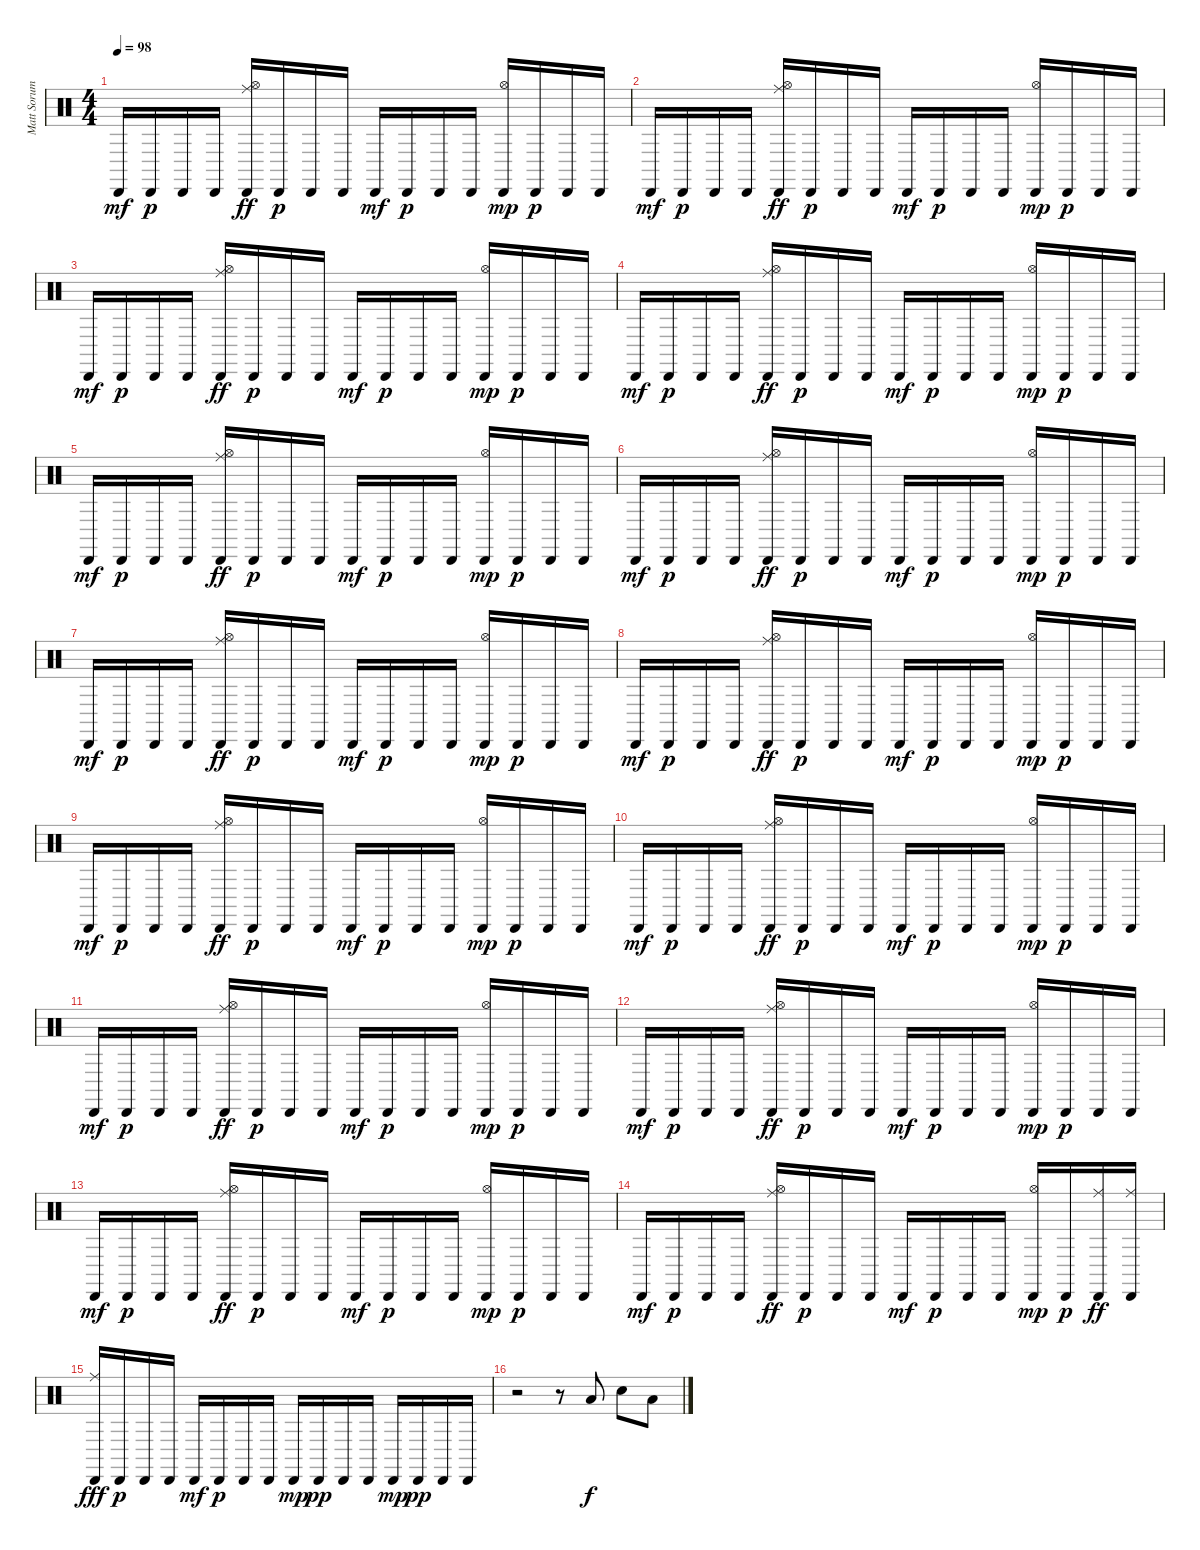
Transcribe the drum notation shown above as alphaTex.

\track ("Matt Sorum" "Matt Sorum") {instrument percussion}
\staff {score}
\articulation defaults
\ts (4 4)
\tempo 98
\clef neutral
\ks c "Cabasa (hit)".16{dy mf volume 6} "Cabasa (hit)".16{dy p} "Cabasa (hit)".16 "Cabasa (hit)".16
("Cabasa (hit)" "Hi-Hat (open)" "Ride (middle)").16{dy ff} "Cabasa (hit)".16{dy p} "Cabasa (hit)".16 "Cabasa (hit)".16 "Cabasa (hit)".16{dy mf} "Cabasa (hit)".16{dy p} "Cabasa (hit)".16 "Cabasa (hit)".16 ("Cabasa (hit)" "Hi-Hat (open)").16{dy mp} "Cabasa (hit)".16{dy p} "Cabasa (hit)".16 "Cabasa (hit)".16 |
"Cabasa (hit)".16{dy mf} "Cabasa (hit)".16{dy p} "Cabasa (hit)".16 "Cabasa (hit)".16 ("Cabasa (hit)" "Hi-Hat (open)" "Ride (middle)").16{dy ff} "Cabasa (hit)".16{dy p} "Cabasa (hit)".16 "Cabasa (hit)".16 "Cabasa (hit)".16{dy mf} "Cabasa (hit)".16{dy p} "Cabasa (hit)".16 "Cabasa (hit)".16 ("Cabasa (hit)" "Hi-Hat (open)").16{dy mp} "Cabasa (hit)".16{dy p} "Cabasa (hit)".16 "Cabasa (hit)".16 |
"Cabasa (hit)".16{dy mf} "Cabasa (hit)".16{dy p} "Cabasa (hit)".16 "Cabasa (hit)".16 ("Cabasa (hit)" "Hi-Hat (open)" "Ride (middle)").16{dy ff} "Cabasa (hit)".16{dy p} "Cabasa (hit)".16 "Cabasa (hit)".16 "Cabasa (hit)".16{dy mf} "Cabasa (hit)".16{dy p} "Cabasa (hit)".16 "Cabasa (hit)".16 ("Cabasa (hit)" "Hi-Hat (open)").16{dy mp} "Cabasa (hit)".16{dy p} "Cabasa (hit)".16 "Cabasa (hit)".16 |
"Cabasa (hit)".16{dy mf} "Cabasa (hit)".16{dy p} "Cabasa (hit)".16 "Cabasa (hit)".16 ("Cabasa (hit)" "Hi-Hat (open)" "Ride (middle)").16{dy ff} "Cabasa (hit)".16{dy p} "Cabasa (hit)".16 "Cabasa (hit)".16 "Cabasa (hit)".16{dy mf} "Cabasa (hit)".16{dy p} "Cabasa (hit)".16 "Cabasa (hit)".16 ("Cabasa (hit)" "Hi-Hat (open)").16{dy mp} "Cabasa (hit)".16{dy p} "Cabasa (hit)".16 "Cabasa (hit)".16 |
"Cabasa (hit)".16{dy mf volume 6} "Cabasa (hit)".16{dy p} "Cabasa (hit)".16 "Cabasa (hit)".16 ("Cabasa (hit)" "Hi-Hat (open)" "Ride (middle)").16{dy ff} "Cabasa (hit)".16{dy p} "Cabasa (hit)".16 "Cabasa (hit)".16 "Cabasa (hit)".16{dy mf} "Cabasa (hit)".16{dy p} "Cabasa (hit)".16 "Cabasa (hit)".16 ("Cabasa (hit)" "Hi-Hat (open)").16{dy mp} "Cabasa (hit)".16{dy p} "Cabasa (hit)".16 "Cabasa (hit)".16 |
"Cabasa (hit)".16{dy mf} "Cabasa (hit)".16{dy p} "Cabasa (hit)".16 "Cabasa (hit)".16 ("Cabasa (hit)" "Hi-Hat (open)" "Ride (middle)").16{dy ff} "Cabasa (hit)".16{dy p} "Cabasa (hit)".16 "Cabasa (hit)".16 "Cabasa (hit)".16{dy mf} "Cabasa (hit)".16{dy p} "Cabasa (hit)".16 "Cabasa (hit)".16 ("Cabasa (hit)" "Hi-Hat (open)").16{dy mp} "Cabasa (hit)".16{dy p} "Cabasa (hit)".16 "Cabasa (hit)".16 |
"Cabasa (hit)".16{dy mf} "Cabasa (hit)".16{dy p} "Cabasa (hit)".16 "Cabasa (hit)".16 ("Cabasa (hit)" "Hi-Hat (open)" "Ride (middle)").16{dy ff} "Cabasa (hit)".16{dy p} "Cabasa (hit)".16 "Cabasa (hit)".16 "Cabasa (hit)".16{dy mf} "Cabasa (hit)".16{dy p} "Cabasa (hit)".16 "Cabasa (hit)".16 ("Cabasa (hit)" "Hi-Hat (open)").16{dy mp} "Cabasa (hit)".16{dy p} "Cabasa (hit)".16 "Cabasa (hit)".16 |
"Cabasa (hit)".16{dy mf} "Cabasa (hit)".16{dy p} "Cabasa (hit)".16 "Cabasa (hit)".16 ("Cabasa (hit)" "Hi-Hat (open)" "Ride (middle)").16{dy ff} "Cabasa (hit)".16{dy p} "Cabasa (hit)".16 "Cabasa (hit)".16 "Cabasa (hit)".16{dy mf} "Cabasa (hit)".16{dy p} "Cabasa (hit)".16 "Cabasa (hit)".16 ("Cabasa (hit)" "Hi-Hat (open)").16{dy mp} "Cabasa (hit)".16{dy p} "Cabasa (hit)".16 "Cabasa (hit)".16 |
"Cabasa (hit)".16{dy mf} "Cabasa (hit)".16{dy p} "Cabasa (hit)".16 "Cabasa (hit)".16 ("Cabasa (hit)" "Hi-Hat (open)" "Ride (middle)").16{dy ff} "Cabasa (hit)".16{dy p} "Cabasa (hit)".16 "Cabasa (hit)".16 "Cabasa (hit)".16{dy mf} "Cabasa (hit)".16{dy p} "Cabasa (hit)".16 "Cabasa (hit)".16 ("Cabasa (hit)" "Hi-Hat (open)").16{dy mp} "Cabasa (hit)".16{dy p} "Cabasa (hit)".16 "Cabasa (hit)".16 |
"Cabasa (hit)".16{dy mf} "Cabasa (hit)".16{dy p} "Cabasa (hit)".16 "Cabasa (hit)".16 ("Cabasa (hit)" "Hi-Hat (open)" "Ride (middle)").16{dy ff} "Cabasa (hit)".16{dy p} "Cabasa (hit)".16 "Cabasa (hit)".16 "Cabasa (hit)".16{dy mf} "Cabasa (hit)".16{dy p} "Cabasa (hit)".16 "Cabasa (hit)".16 ("Cabasa (hit)" "Hi-Hat (open)").16{dy mp} "Cabasa (hit)".16{dy p} "Cabasa (hit)".16 "Cabasa (hit)".16 |
"Cabasa (hit)".16{dy mf} "Cabasa (hit)".16{dy p} "Cabasa (hit)".16 "Cabasa (hit)".16 ("Cabasa (hit)" "Hi-Hat (open)" "Ride (middle)").16{dy ff} "Cabasa (hit)".16{dy p} "Cabasa (hit)".16 "Cabasa (hit)".16 "Cabasa (hit)".16{dy mf} "Cabasa (hit)".16{dy p} "Cabasa (hit)".16 "Cabasa (hit)".16 ("Cabasa (hit)" "Hi-Hat (open)").16{dy mp} "Cabasa (hit)".16{dy p} "Cabasa (hit)".16 "Cabasa (hit)".16 |
"Cabasa (hit)".16{dy mf} "Cabasa (hit)".16{dy p} "Cabasa (hit)".16 "Cabasa (hit)".16 ("Cabasa (hit)" "Hi-Hat (open)" "Ride (middle)").16{dy ff} "Cabasa (hit)".16{dy p} "Cabasa (hit)".16 "Cabasa (hit)".16 "Cabasa (hit)".16{dy mf} "Cabasa (hit)".16{dy p} "Cabasa (hit)".16 "Cabasa (hit)".16 ("Cabasa (hit)" "Hi-Hat (open)").16{dy mp} "Cabasa (hit)".16{dy p} "Cabasa (hit)".16 "Cabasa (hit)".16 |
"Cabasa (hit)".16{dy mf} "Cabasa (hit)".16{dy p} "Cabasa (hit)".16 "Cabasa (hit)".16 ("Cabasa (hit)" "Hi-Hat (open)" "Ride (middle)").16{dy ff} "Cabasa (hit)".16{dy p} "Cabasa (hit)".16 "Cabasa (hit)".16 "Cabasa (hit)".16{dy mf} "Cabasa (hit)".16{dy p} "Cabasa (hit)".16 "Cabasa (hit)".16 ("Cabasa (hit)" "Hi-Hat (open)").16{dy mp} "Cabasa (hit)".16{dy p} "Cabasa (hit)".16 "Cabasa (hit)".16 |
"Cabasa (hit)".16{dy mf volume 6} "Cabasa (hit)".16{dy p} "Cabasa (hit)".16 "Cabasa (hit)".16 ("Cabasa (hit)" "Hi-Hat (open)" "Ride (middle)").16{dy ff} "Cabasa (hit)".16{dy p} "Cabasa (hit)".16 "Cabasa (hit)".16 "Cabasa (hit)".16{dy mf} "Cabasa (hit)".16{dy p} "Cabasa (hit)".16 "Cabasa (hit)".16 ("Cabasa (hit)" "Hi-Hat (open)").16{dy mp} "Cabasa (hit)".16{dy p} ("Cabasa (hit)" "Ride (middle)").16{dy ff} ("Cabasa (hit)" "Ride (middle)").16 |
("Cabasa (hit)" "Ride (middle)").16{dy fff} "Cabasa (hit)".16{dy p} "Cabasa (hit)".16 "Cabasa (hit)".16 "Cabasa (hit)".16{dy mf} "Cabasa (hit)".16{dy p} "Cabasa (hit)".16 "Cabasa (hit)".16 "Cabasa (hit)".16{dy mp} "Cabasa (hit)".16{dy pp} "Cabasa (hit)".16 "Cabasa (hit)".16 "Cabasa (hit)".16{dy mp} "Cabasa (hit)".16{dy pp} "Cabasa (hit)".16 "Cabasa (hit)".16 |
r.2{volume 12} r.8 "Low Tom (hit)".8{dy f} "Snare (hit) 2".8 "Low Tom (hit)".8
